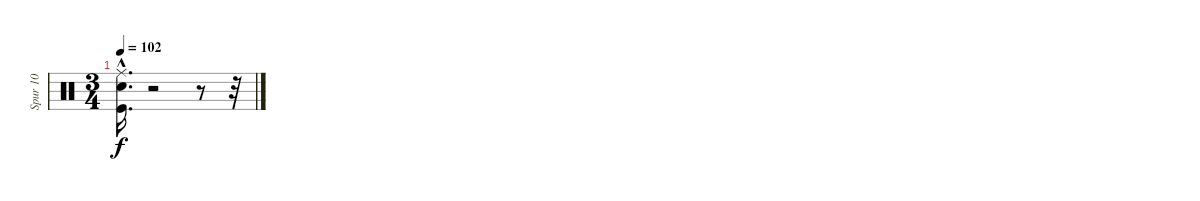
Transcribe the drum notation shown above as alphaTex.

\track ("Spur 10" "Spur 10") {instrument percussion}
\staff {score}
\articulation defaults
\ts (3 4)
\tempo 102
\clef neutral
\ks c
("Ride (middle)"{hac} "Hand Clap (hit)"{hac} "Kick (hit)"{hac}).16{d dy f} r.2 r.8 r.32
